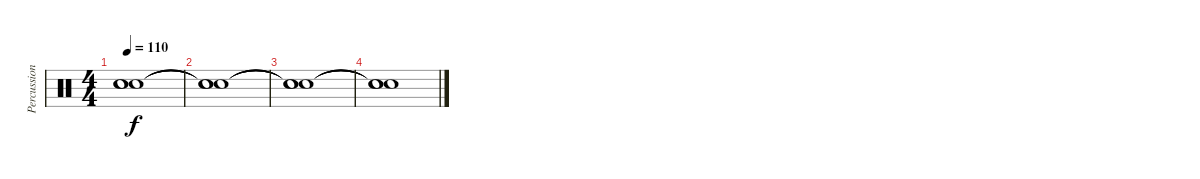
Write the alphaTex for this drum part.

\track ("Percussion" "Percussion") {instrument percussion}
\staff {score}
\articulation defaults
\ts (4 4)
\tempo 110
\clef neutral
\ks c
("Snare (hit)"{t} "Snare (hit)"{t} "Snare (hit)"{t}).1{dy f} |
("Snare (hit)"{t} "Snare (hit)"{t} "Snare (hit)"{t}).1 |
("Snare (hit)"{t} "Snare (hit)"{t} "Snare (hit)"{t}).1 |
("Snare (hit)"{t} "Snare (hit)"{t} "Snare (hit)"{t}).1
